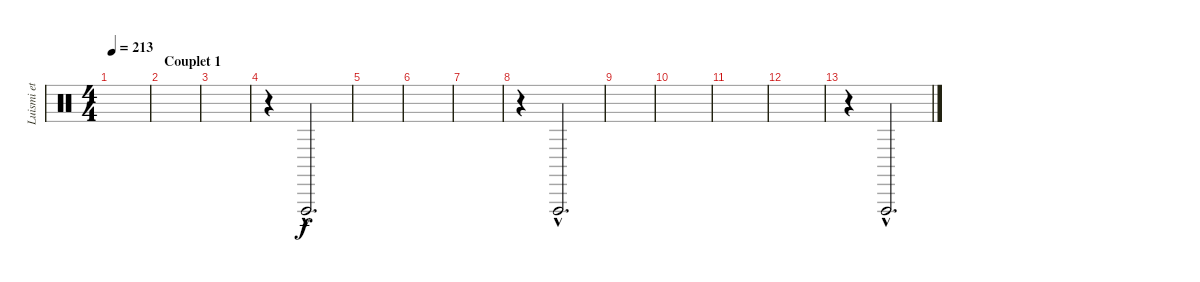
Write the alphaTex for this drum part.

\track ("Luismi et ses castagnettes" "Luismi et ") {instrument percussion}
\staff {score}
\articulation defaults
\ts (4 4)
\tempo 213
\clef neutral
\ks c
|
\section ("" "Couplet 1")
|
|
r.4 "Vibraslap (hit)"{hac}.2{d} |
|
|
|
r.4 "Vibraslap (hit)"{hac}.2{d} |
|
|
|
|
r.4 "Vibraslap (hit)"{hac}.2{d}
